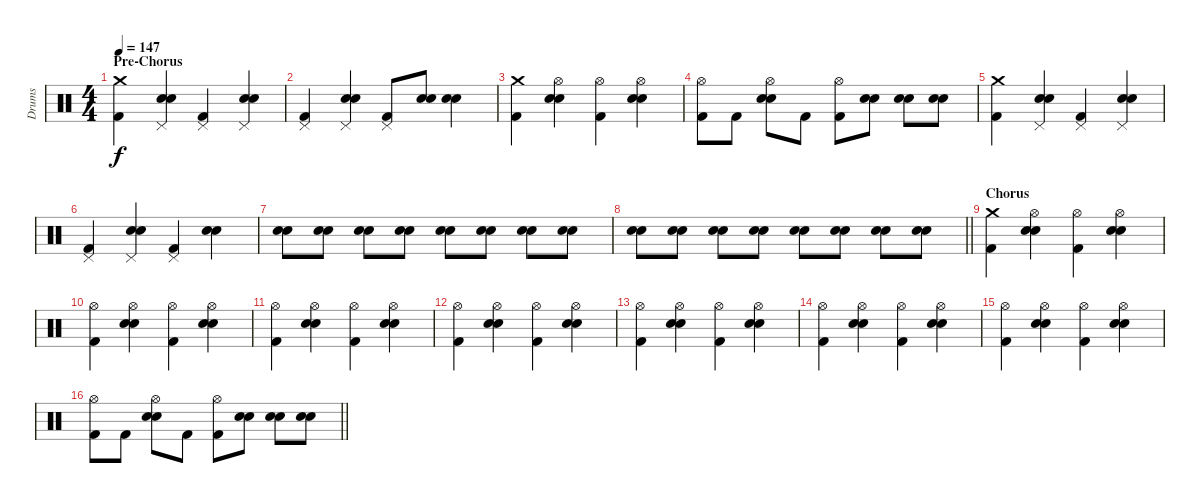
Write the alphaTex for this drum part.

\track ("Drums" "Drums") {instrument percussion}
\staff {score}
\articulation defaults
\ts (4 4)
\section ("" "Pre-Chorus")
\tempo 147
\clef neutral
\ks c
("Crash medium (hit)" "Kick (hit) 2").4{dy f} ("Pedal Hi-Hat (hit)" "Electric Snare (hit)" "Snare (hit) 2").4 ("Pedal Hi-Hat (hit)" "Kick (hit) 2").4 ("Pedal Hi-Hat (hit)" "Electric Snare (hit)" "Snare (hit) 2").4 |
("Pedal Hi-Hat (hit)" "Kick (hit) 2").4 ("Pedal Hi-Hat (hit)" "Electric Snare (hit)" "Snare (hit) 2").4 ("Pedal Hi-Hat (hit)" "Kick (hit) 2").8 ("Electric Snare (hit)" "Snare (hit) 2").8 ("Electric Snare (hit)" "Snare (hit) 2").4 |
("Crash medium (hit)" "Kick (hit) 2").4 ("Hi-Hat (open)" "Electric Snare (hit)" "Snare (hit) 2").4 ("Hi-Hat (open)" "Kick (hit) 2").4 ("Hi-Hat (open)" "Electric Snare (hit)" "Snare (hit) 2").4 |
("Hi-Hat (open)" "Kick (hit) 2").8 "Kick (hit) 2".8 ("Hi-Hat (open)" "Electric Snare (hit)" "Snare (hit) 2").8 "Kick (hit) 2".8 ("Hi-Hat (open)" "Kick (hit) 2").8 ("Electric Snare (hit)" "Snare (hit) 2").8 ("Electric Snare (hit)" "Snare (hit) 2").8 ("Electric Snare (hit)" "Snare (hit) 2").8 |
("Crash medium (hit)" "Kick (hit) 2").4 ("Pedal Hi-Hat (hit)" "Electric Snare (hit)" "Snare (hit) 2").4 ("Pedal Hi-Hat (hit)" "Kick (hit) 2").4 ("Pedal Hi-Hat (hit)" "Electric Snare (hit)" "Snare (hit) 2").4 |
("Pedal Hi-Hat (hit)" "Kick (hit) 2").4 ("Pedal Hi-Hat (hit)" "Electric Snare (hit)" "Snare (hit) 2").4 ("Pedal Hi-Hat (hit)" "Kick (hit) 2").4 ("Electric Snare (hit)" "Snare (hit) 2").4 |
("Electric Snare (hit)" "Snare (hit) 2").8 ("Electric Snare (hit)" "Snare (hit) 2").8 ("Electric Snare (hit)" "Snare (hit) 2").8 ("Electric Snare (hit)" "Snare (hit) 2").8 ("Electric Snare (hit)" "Snare (hit) 2").8 ("Electric Snare (hit)" "Snare (hit) 2").8 ("Electric Snare (hit)" "Snare (hit) 2").8 ("Electric Snare (hit)" "Snare (hit) 2").8 |
\barLineRight lightlight
("Electric Snare (hit)" "Snare (hit) 2").8 ("Electric Snare (hit)" "Snare (hit) 2").8 ("Electric Snare (hit)" "Snare (hit) 2").8 ("Electric Snare (hit)" "Snare (hit) 2").8 ("Electric Snare (hit)" "Snare (hit) 2").8 ("Electric Snare (hit)" "Snare (hit) 2").8 ("Electric Snare (hit)" "Snare (hit) 2").8 ("Electric Snare (hit)" "Snare (hit) 2").8 |
\section ("" "Chorus")
("Crash medium (hit)" "Kick (hit) 2").4 ("Hi-Hat (open)" "Electric Snare (hit)" "Snare (hit) 2").4 ("Hi-Hat (open)" "Kick (hit) 2").4 ("Hi-Hat (open)" "Electric Snare (hit)" "Snare (hit) 2").4 |
("Hi-Hat (open)" "Kick (hit) 2").4 ("Hi-Hat (open)" "Electric Snare (hit)" "Snare (hit) 2").4 ("Hi-Hat (open)" "Kick (hit) 2").4 ("Hi-Hat (open)" "Electric Snare (hit)" "Snare (hit) 2").4 |
("Hi-Hat (open)" "Kick (hit) 2").4 ("Hi-Hat (open)" "Electric Snare (hit)" "Snare (hit) 2").4 ("Hi-Hat (open)" "Kick (hit) 2").4 ("Hi-Hat (open)" "Electric Snare (hit)" "Snare (hit) 2").4 |
("Hi-Hat (open)" "Kick (hit) 2").4 ("Hi-Hat (open)" "Electric Snare (hit)" "Snare (hit) 2").4 ("Hi-Hat (open)" "Kick (hit) 2").4 ("Hi-Hat (open)" "Electric Snare (hit)" "Snare (hit) 2").4 |
("Hi-Hat (open)" "Kick (hit) 2").4 ("Hi-Hat (open)" "Electric Snare (hit)" "Snare (hit) 2").4 ("Hi-Hat (open)" "Kick (hit) 2").4 ("Hi-Hat (open)" "Electric Snare (hit)" "Snare (hit) 2").4 |
("Hi-Hat (open)" "Kick (hit) 2").4 ("Hi-Hat (open)" "Electric Snare (hit)" "Snare (hit) 2").4 ("Hi-Hat (open)" "Kick (hit) 2").4 ("Hi-Hat (open)" "Electric Snare (hit)" "Snare (hit) 2").4 |
("Hi-Hat (open)" "Kick (hit) 2").4 ("Hi-Hat (open)" "Electric Snare (hit)" "Snare (hit) 2").4 ("Hi-Hat (open)" "Kick (hit) 2").4 ("Hi-Hat (open)" "Electric Snare (hit)" "Snare (hit) 2").4 |
\barLineRight lightlight
("Hi-Hat (open)" "Kick (hit) 2").8 "Kick (hit) 2".8 ("Hi-Hat (open)" "Electric Snare (hit)" "Snare (hit) 2").8 "Kick (hit) 2".8 ("Hi-Hat (open)" "Kick (hit) 2").8 ("Electric Snare (hit)" "Snare (hit) 2").8 ("Electric Snare (hit)" "Snare (hit) 2").8 ("Electric Snare (hit)" "Snare (hit) 2").8
